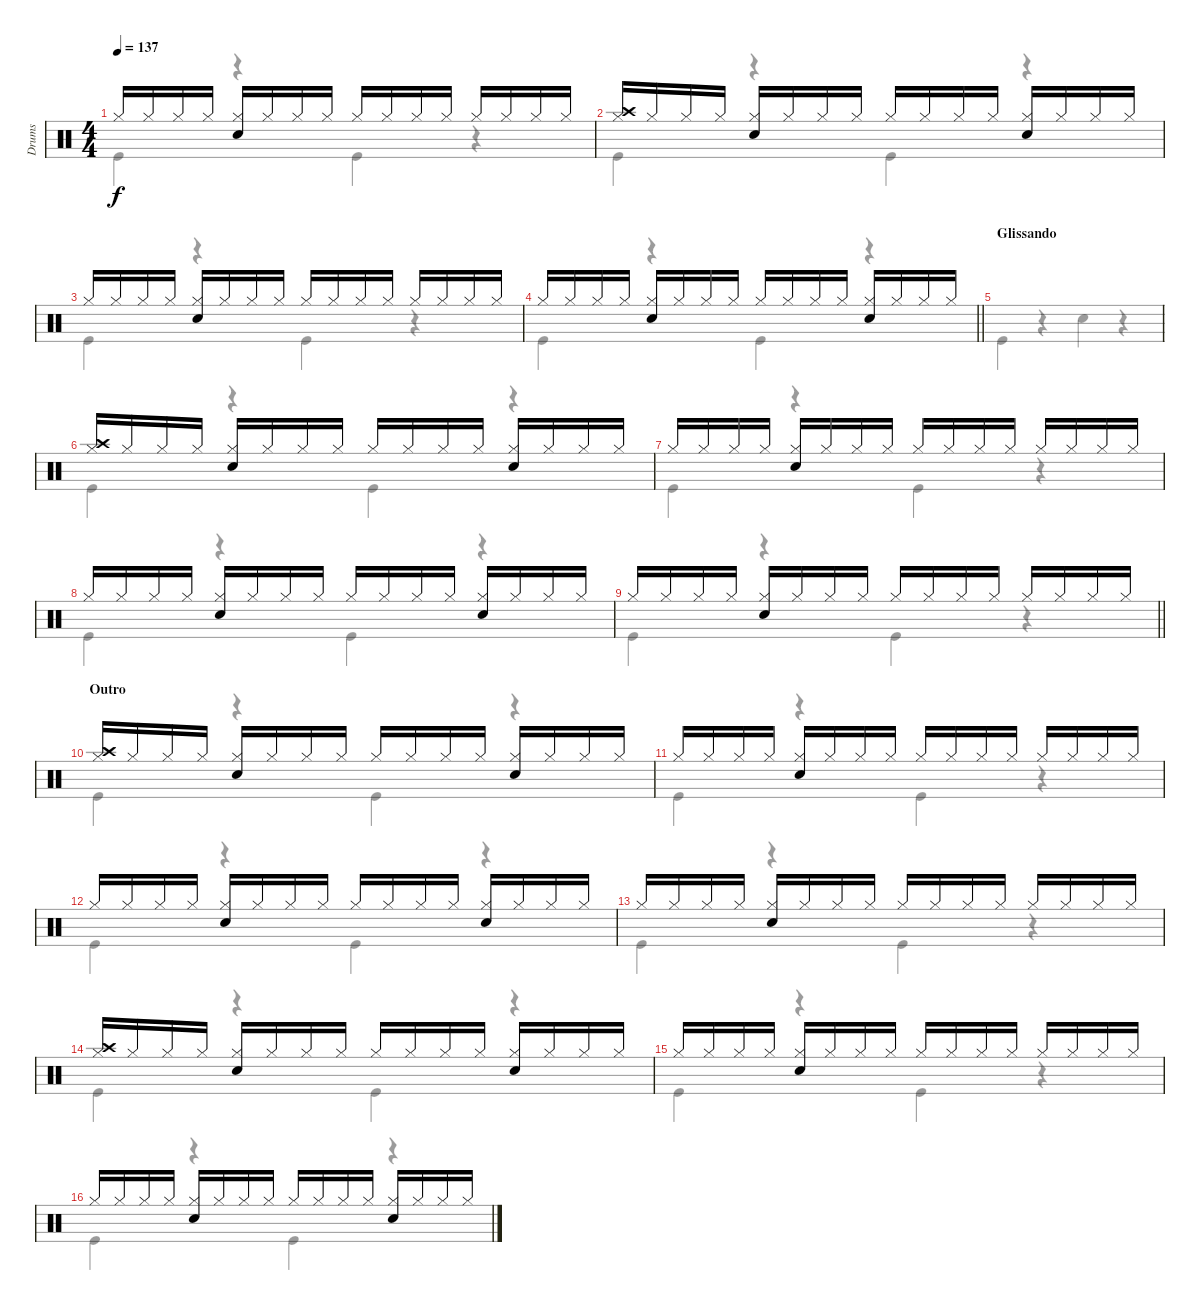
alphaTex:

\track ("Drums" "Drums") {instrument percussion}
\staff {score}
\articulation defaults
\voice
\ts (4 4)
\tempo 137
\clef neutral
\ks c "Hi-Hat (closed)".16{dy f} "Hi-Hat (closed)".16 "Hi-Hat (closed)".16 "Hi-Hat (closed)".16
("Hi-Hat (closed)" "Snare (hit) 2").16 "Hi-Hat (closed)".16 "Hi-Hat (closed)".16 "Hi-Hat (closed)".16 "Hi-Hat (closed)".16 "Hi-Hat (closed)".16 "Hi-Hat (closed)".16 "Hi-Hat (closed)".16 "Hi-Hat (closed)".16 "Hi-Hat (closed)".16 "Hi-Hat (closed)".16 "Hi-Hat (closed)".16 |
("Hi-Hat (closed)" "Crash high (hit)").16 "Hi-Hat (closed)".16 "Hi-Hat (closed)".16 "Hi-Hat (closed)".16 ("Hi-Hat (closed)" "Snare (hit) 2").16 "Hi-Hat (closed)".16 "Hi-Hat (closed)".16 "Hi-Hat (closed)".16 "Hi-Hat (closed)".16 "Hi-Hat (closed)".16 "Hi-Hat (closed)".16 "Hi-Hat (closed)".16 ("Hi-Hat (closed)" "Hand Clap (hit)").16 "Hi-Hat (closed)".16 "Hi-Hat (closed)".16 "Hi-Hat (closed)".16 |
"Hi-Hat (closed)".16 "Hi-Hat (closed)".16 "Hi-Hat (closed)".16 "Hi-Hat (closed)".16 ("Hi-Hat (closed)" "Snare (hit) 2").16 "Hi-Hat (closed)".16 "Hi-Hat (closed)".16 "Hi-Hat (closed)".16 "Hi-Hat (closed)".16 "Hi-Hat (closed)".16 "Hi-Hat (closed)".16 "Hi-Hat (closed)".16 "Hi-Hat (closed)".16 "Hi-Hat (closed)".16 "Hi-Hat (closed)".16 "Hi-Hat (closed)".16 |
\barLineRight lightlight "Hi-Hat (closed)".16 "Hi-Hat (closed)".16 "Hi-Hat (closed)".16 "Hi-Hat (closed)".16
("Hi-Hat (closed)" "Snare (hit) 2").16 "Hi-Hat (closed)".16 "Hi-Hat (closed)".16 "Hi-Hat (closed)".16 "Hi-Hat (closed)".16 "Hi-Hat (closed)".16 "Hi-Hat (closed)".16 "Hi-Hat (closed)".16 ("Hi-Hat (closed)" "Hand Clap (hit)").16 "Hi-Hat (closed)".16 "Hi-Hat (closed)".16 "Hi-Hat (closed)".16 |
\section ("" "Glissando")
|
("Hi-Hat (closed)" "Crash high (hit)").16 "Hi-Hat (closed)".16 "Hi-Hat (closed)".16 "Hi-Hat (closed)".16 ("Hi-Hat (closed)" "Snare (hit) 2").16 "Hi-Hat (closed)".16 "Hi-Hat (closed)".16 "Hi-Hat (closed)".16 "Hi-Hat (closed)".16 "Hi-Hat (closed)".16 "Hi-Hat (closed)".16 "Hi-Hat (closed)".16 ("Hi-Hat (closed)" "Hand Clap (hit)").16 "Hi-Hat (closed)".16 "Hi-Hat (closed)".16 "Hi-Hat (closed)".16 |
"Hi-Hat (closed)".16 "Hi-Hat (closed)".16 "Hi-Hat (closed)".16 "Hi-Hat (closed)".16 ("Hi-Hat (closed)" "Snare (hit) 2").16 "Hi-Hat (closed)".16 "Hi-Hat (closed)".16 "Hi-Hat (closed)".16 "Hi-Hat (closed)".16 "Hi-Hat (closed)".16 "Hi-Hat (closed)".16 "Hi-Hat (closed)".16 "Hi-Hat (closed)".16 "Hi-Hat (closed)".16 "Hi-Hat (closed)".16 "Hi-Hat (closed)".16 |
"Hi-Hat (closed)".16 "Hi-Hat (closed)".16 "Hi-Hat (closed)".16 "Hi-Hat (closed)".16 ("Hi-Hat (closed)" "Snare (hit) 2").16 "Hi-Hat (closed)".16 "Hi-Hat (closed)".16 "Hi-Hat (closed)".16 "Hi-Hat (closed)".16 "Hi-Hat (closed)".16 "Hi-Hat (closed)".16 "Hi-Hat (closed)".16 ("Hi-Hat (closed)" "Hand Clap (hit)").16 "Hi-Hat (closed)".16 "Hi-Hat (closed)".16 "Hi-Hat (closed)".16 |
\barLineRight lightlight "Hi-Hat (closed)".16 "Hi-Hat (closed)".16 "Hi-Hat (closed)".16 "Hi-Hat (closed)".16
("Hi-Hat (closed)" "Snare (hit) 2").16 "Hi-Hat (closed)".16 "Hi-Hat (closed)".16 "Hi-Hat (closed)".16 "Hi-Hat (closed)".16 "Hi-Hat (closed)".16 "Hi-Hat (closed)".16 "Hi-Hat (closed)".16 "Hi-Hat (closed)".16 "Hi-Hat (closed)".16 "Hi-Hat (closed)".16 "Hi-Hat (closed)".16 |
\section ("" "Outro")
("Hi-Hat (closed)" "Crash high (hit)").16 "Hi-Hat (closed)".16 "Hi-Hat (closed)".16 "Hi-Hat (closed)".16 ("Hi-Hat (closed)" "Snare (hit) 2").16 "Hi-Hat (closed)".16 "Hi-Hat (closed)".16 "Hi-Hat (closed)".16 "Hi-Hat (closed)".16 "Hi-Hat (closed)".16 "Hi-Hat (closed)".16 "Hi-Hat (closed)".16 ("Hi-Hat (closed)" "Hand Clap (hit)").16 "Hi-Hat (closed)".16 "Hi-Hat (closed)".16 "Hi-Hat (closed)".16 |
"Hi-Hat (closed)".16 "Hi-Hat (closed)".16 "Hi-Hat (closed)".16 "Hi-Hat (closed)".16 ("Hi-Hat (closed)" "Snare (hit) 2").16 "Hi-Hat (closed)".16 "Hi-Hat (closed)".16 "Hi-Hat (closed)".16 "Hi-Hat (closed)".16 "Hi-Hat (closed)".16 "Hi-Hat (closed)".16 "Hi-Hat (closed)".16 "Hi-Hat (closed)".16 "Hi-Hat (closed)".16 "Hi-Hat (closed)".16 "Hi-Hat (closed)".16 |
"Hi-Hat (closed)".16 "Hi-Hat (closed)".16 "Hi-Hat (closed)".16 "Hi-Hat (closed)".16 ("Hi-Hat (closed)" "Snare (hit) 2").16 "Hi-Hat (closed)".16 "Hi-Hat (closed)".16 "Hi-Hat (closed)".16 "Hi-Hat (closed)".16 "Hi-Hat (closed)".16 "Hi-Hat (closed)".16 "Hi-Hat (closed)".16 ("Hi-Hat (closed)" "Hand Clap (hit)").16 "Hi-Hat (closed)".16 "Hi-Hat (closed)".16 "Hi-Hat (closed)".16 |
"Hi-Hat (closed)".16 "Hi-Hat (closed)".16 "Hi-Hat (closed)".16 "Hi-Hat (closed)".16 ("Hi-Hat (closed)" "Snare (hit) 2").16 "Hi-Hat (closed)".16 "Hi-Hat (closed)".16 "Hi-Hat (closed)".16 "Hi-Hat (closed)".16 "Hi-Hat (closed)".16 "Hi-Hat (closed)".16 "Hi-Hat (closed)".16 "Hi-Hat (closed)".16 "Hi-Hat (closed)".16 "Hi-Hat (closed)".16 "Hi-Hat (closed)".16 |
("Hi-Hat (closed)" "Crash high (hit)").16 "Hi-Hat (closed)".16 "Hi-Hat (closed)".16 "Hi-Hat (closed)".16 ("Hi-Hat (closed)" "Snare (hit) 2").16 "Hi-Hat (closed)".16 "Hi-Hat (closed)".16 "Hi-Hat (closed)".16 "Hi-Hat (closed)".16 "Hi-Hat (closed)".16 "Hi-Hat (closed)".16 "Hi-Hat (closed)".16 ("Hi-Hat (closed)" "Hand Clap (hit)").16 "Hi-Hat (closed)".16 "Hi-Hat (closed)".16 "Hi-Hat (closed)".16 |
"Hi-Hat (closed)".16 "Hi-Hat (closed)".16 "Hi-Hat (closed)".16 "Hi-Hat (closed)".16 ("Hi-Hat (closed)" "Snare (hit) 2").16 "Hi-Hat (closed)".16 "Hi-Hat (closed)".16 "Hi-Hat (closed)".16 "Hi-Hat (closed)".16 "Hi-Hat (closed)".16 "Hi-Hat (closed)".16 "Hi-Hat (closed)".16 "Hi-Hat (closed)".16 "Hi-Hat (closed)".16 "Hi-Hat (closed)".16 "Hi-Hat (closed)".16 |
"Hi-Hat (closed)".16 "Hi-Hat (closed)".16 "Hi-Hat (closed)".16 "Hi-Hat (closed)".16 ("Hi-Hat (closed)" "Snare (hit) 2").16 "Hi-Hat (closed)".16 "Hi-Hat (closed)".16 "Hi-Hat (closed)".16 "Hi-Hat (closed)".16 "Hi-Hat (closed)".16 "Hi-Hat (closed)".16 "Hi-Hat (closed)".16 ("Hi-Hat (closed)" "Hand Clap (hit)").16 "Hi-Hat (closed)".16 "Hi-Hat (closed)".16 "Hi-Hat (closed)".16
\voice
\clef neutral
\ottava regular
\simile none
\ks c "Kick (hit)".4{dy f}
r.4 "Kick (hit)".4 r.4 |
"Kick (hit)".4 r.4 "Kick (hit)".4 r.4 |
"Kick (hit)".4 r.4 "Kick (hit)".4 r.4 |
\barLineRight lightlight "Kick (hit)".4
r.4 "Kick (hit)".4 r.4 |
"Kick (hit)".4 r.4 "Snare (hit) 2".4 r.4 |
"Kick (hit)".4 r.4 "Kick (hit)".4 r.4 |
"Kick (hit)".4 r.4 "Kick (hit)".4 r.4 |
"Kick (hit)".4 r.4 "Kick (hit)".4 r.4 |
\barLineRight lightlight "Kick (hit)".4
r.4 "Kick (hit)".4 r.4 |
"Kick (hit)".4 r.4 "Kick (hit)".4 r.4 |
"Kick (hit)".4 r.4 "Kick (hit)".4 r.4 |
"Kick (hit)".4 r.4 "Kick (hit)".4 r.4 |
"Kick (hit)".4 r.4 "Kick (hit)".4 r.4 |
"Kick (hit)".4 r.4 "Kick (hit)".4 r.4 |
"Kick (hit)".4 r.4 "Kick (hit)".4 r.4 |
"Kick (hit)".4 r.4 "Kick (hit)".4 r.4
